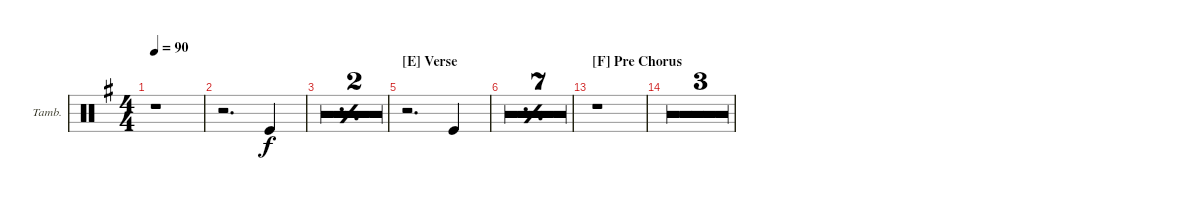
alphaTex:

\defaultSystemsLayout 4
\bracketExtendMode groupsimilarinstruments
\firstSystemTrackNameOrientation horizontal
\otherSystemsTrackNameOrientation horizontal
\track ("Tambourine" "Tamb.") {multiBarRest instrument percussion}
\staff {score}
\articulation defaults
\ts (4 4)
\tempo 90
\clef neutral
\ks g
r.1{dy f} |
r.2{d} "Kick (hit)".4 |
\simile simple
|
|
\section ("E" "Verse")
\simile none
r.2{d} "Kick (hit)".4 |
\simile simple
|
|
|
|
|
|
|
\section ("F" "Pre Chorus")
\simile none
r.1 |
r.1 |
r.1 |
r.1
